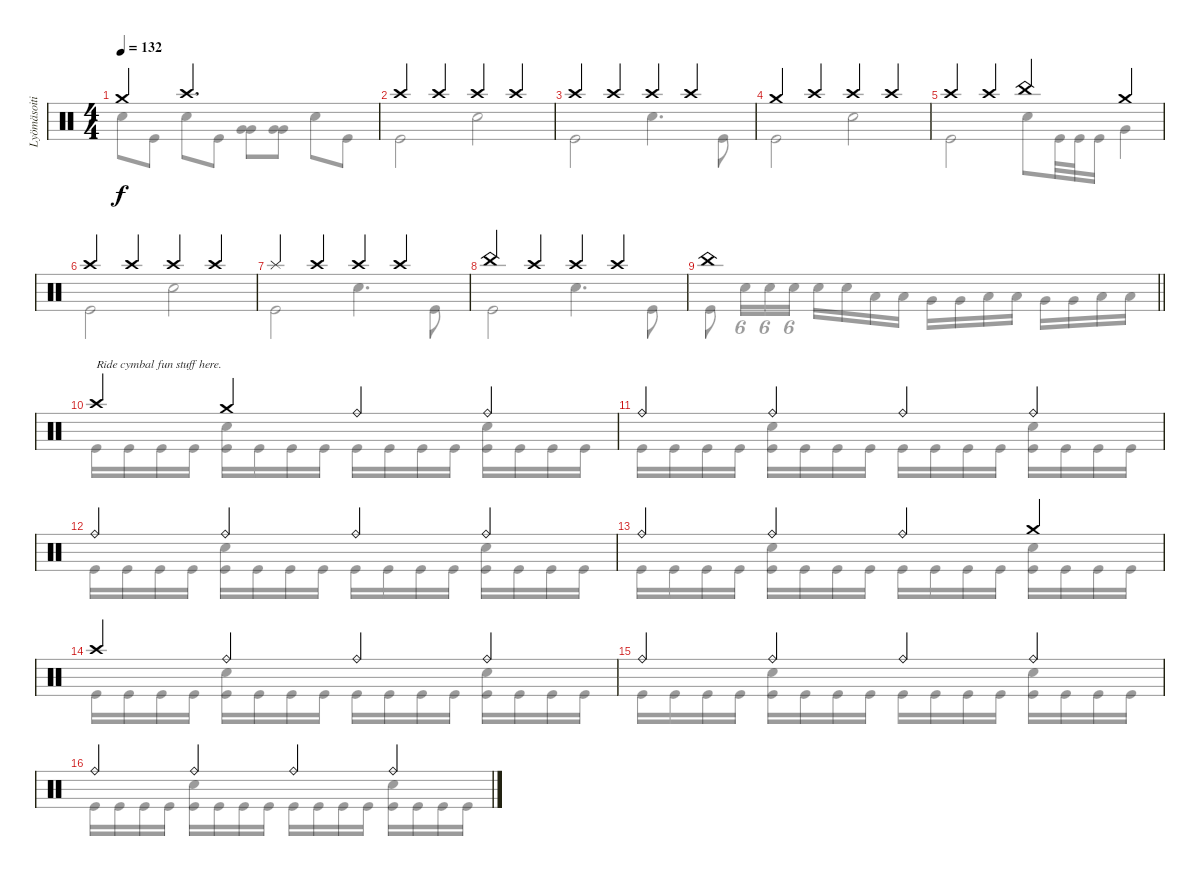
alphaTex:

\track ("Lyömäsoitin" "Lyömäsoiti") {instrument percussion}
\staff {score}
\articulation defaults
\voice
\ts (4 4)
\tempo 132
\clef neutral
\ks c "Crash medium (hit)".4{dy f} "Crash high (hit)".2{d}
|
"Crash high (hit)".4 "Crash high (hit)".4 "Crash high (hit)".4 "Crash high (hit)".4 |
"Crash high (hit)".4 "Crash high (hit)".4 "Crash high (hit)".4 "Crash high (hit)".4 |
"Crash medium (hit)".4 "Crash high (hit)".4 "Crash high (hit)".4 "Crash high (hit)".4 |
"Crash high (hit)".4 "Crash high (hit)".4 "China (hit)".4 "Crash medium (hit)".4 |
"Crash high (hit)".4 "Crash high (hit)".4 "Crash high (hit)".4 "Crash high (hit)".4 |
"Splash (hit)".4 "Crash high (hit)".4 "Crash high (hit)".4 "Crash high (hit)".4 |
"China (hit)".4 "Crash high (hit)".4 "Crash high (hit)".4 "Crash high (hit)".4 |
\barLineRight lightlight "China (hit)".1
|
\section ("" "")
"Crash high (hit)".4{txt "Ride cymbal fun stuff here."} "Crash medium (hit)".4 "Ride (bell)".4 "Ride (bell)".4 |
"Ride (bell)".4 "Ride (bell)".4 "Ride (bell)".4 "Ride (bell)".4 |
"Ride (bell)".4 "Ride (bell)".4 "Ride (bell)".4 "Ride (bell)".4 |
"Ride (bell)".4 "Ride (bell)".4 "Ride (bell)".4 "Crash medium (hit)".4 |
"Crash high (hit)".4 "Ride (bell)".4 "Ride (bell)".4 "Ride (bell)".4 |
"Ride (bell)".4 "Ride (bell)".4 "Ride (bell)".4 "Ride (bell)".4 |
"Ride (bell)".4 "Ride (bell)".4 "Ride (bell)".4 "Ride (bell)".4
\voice
\clef neutral
\ottava regular
\simile none
\ks c "Electric Snare (hit)".8{dy f} "Kick (hit)".8 "Electric Snare (hit)".8 "Kick (hit)".8
("Very Low Tom (hit)" "Very Low Tom (hit)").8 ("Very Low Tom (hit)" "Very Low Tom (hit)").8 "Electric Snare (hit)".8 "Kick (hit)".8 |
"Kick (hit)".2 "Electric Snare (hit)".2 |
"Kick (hit)".2 "Electric Snare (hit)".4{d} "Kick (hit)".8 |
"Kick (hit)".2 "Electric Snare (hit)".2 |
"Kick (hit)".2 "Electric Snare (hit)".8 "Kick (hit)".32 "Kick (hit)".32 "Kick (hit)".16 "Very Low Tom (hit)".4 |
"Kick (hit)".2 "Electric Snare (hit)".2 |
"Kick (hit)".2 "Electric Snare (hit)".4{d} "Kick (hit)".8 |
"Kick (hit)".2 "Electric Snare (hit)".4{d} "Kick (hit)".8 |
\barLineRight lightlight "Kick (hit)".8 "Electric Snare (hit)".16{tu (6 4)} "Electric Snare (hit)".16{tu (6 4)} "Electric Snare (hit)".16{tu (6 4)} "Electric Snare (hit)".16 "Electric Snare (hit)".16 "Low Tom (hit)".16 "Low Tom (hit)".16 "Very Low Tom (hit)".16 "Very Low Tom (hit)".16 "Low Tom (hit)".16 "Low Tom (hit)".16 "Very Low Tom (hit)".16 "Very Low Tom (hit)".16 "Low Floor Tom (hit)".16 "Low Floor Tom (hit)".16
|
"Kick (hit)".16 "Kick (hit)".16 "Kick (hit)".16 "Kick (hit)".16 ("Electric Snare (hit)" "Kick (hit)").16 "Kick (hit)".16 "Kick (hit)".16 "Kick (hit)".16 "Kick (hit)".16 "Kick (hit)".16 "Kick (hit)".16 "Kick (hit)".16 ("Electric Snare (hit)" "Kick (hit)").16 "Kick (hit)".16 "Kick (hit)".16 "Kick (hit)".16 |
"Kick (hit)".16 "Kick (hit)".16 "Kick (hit)".16 "Kick (hit)".16 ("Electric Snare (hit)" "Kick (hit)").16 "Kick (hit)".16 "Kick (hit)".16 "Kick (hit)".16 "Kick (hit)".16 "Kick (hit)".16 "Kick (hit)".16 "Kick (hit)".16 ("Electric Snare (hit)" "Kick (hit)").16 "Kick (hit)".16 "Kick (hit)".16 "Kick (hit)".16 |
"Kick (hit)".16 "Kick (hit)".16 "Kick (hit)".16 "Kick (hit)".16 ("Electric Snare (hit)" "Kick (hit)").16 "Kick (hit)".16 "Kick (hit)".16 "Kick (hit)".16 "Kick (hit)".16 "Kick (hit)".16 "Kick (hit)".16 "Kick (hit)".16 ("Electric Snare (hit)" "Kick (hit)").16 "Kick (hit)".16 "Kick (hit)".16 "Kick (hit)".16 |
"Kick (hit)".16 "Kick (hit)".16 "Kick (hit)".16 "Kick (hit)".16 ("Electric Snare (hit)" "Kick (hit)").16 "Kick (hit)".16 "Kick (hit)".16 "Kick (hit)".16 "Kick (hit)".16 "Kick (hit)".16 "Kick (hit)".16 "Kick (hit)".16 ("Electric Snare (hit)" "Kick (hit)").16 "Kick (hit)".16 "Kick (hit)".16 "Kick (hit)".16 |
"Kick (hit)".16 "Kick (hit)".16 "Kick (hit)".16 "Kick (hit)".16 ("Electric Snare (hit)" "Kick (hit)").16 "Kick (hit)".16 "Kick (hit)".16 "Kick (hit)".16 "Kick (hit)".16 "Kick (hit)".16 "Kick (hit)".16 "Kick (hit)".16 ("Electric Snare (hit)" "Kick (hit)").16 "Kick (hit)".16 "Kick (hit)".16 "Kick (hit)".16 |
"Kick (hit)".16 "Kick (hit)".16 "Kick (hit)".16 "Kick (hit)".16 ("Electric Snare (hit)" "Kick (hit)").16 "Kick (hit)".16 "Kick (hit)".16 "Kick (hit)".16 "Kick (hit)".16 "Kick (hit)".16 "Kick (hit)".16 "Kick (hit)".16 ("Electric Snare (hit)" "Kick (hit)").16 "Kick (hit)".16 "Kick (hit)".16 "Kick (hit)".16 |
"Kick (hit)".16 "Kick (hit)".16 "Kick (hit)".16 "Kick (hit)".16 ("Electric Snare (hit)" "Kick (hit)").16 "Kick (hit)".16 "Kick (hit)".16 "Kick (hit)".16 "Kick (hit)".16 "Kick (hit)".16 "Kick (hit)".16 "Kick (hit)".16 ("Electric Snare (hit)" "Kick (hit)").16 "Kick (hit)".16 "Kick (hit)".16 "Kick (hit)".16
